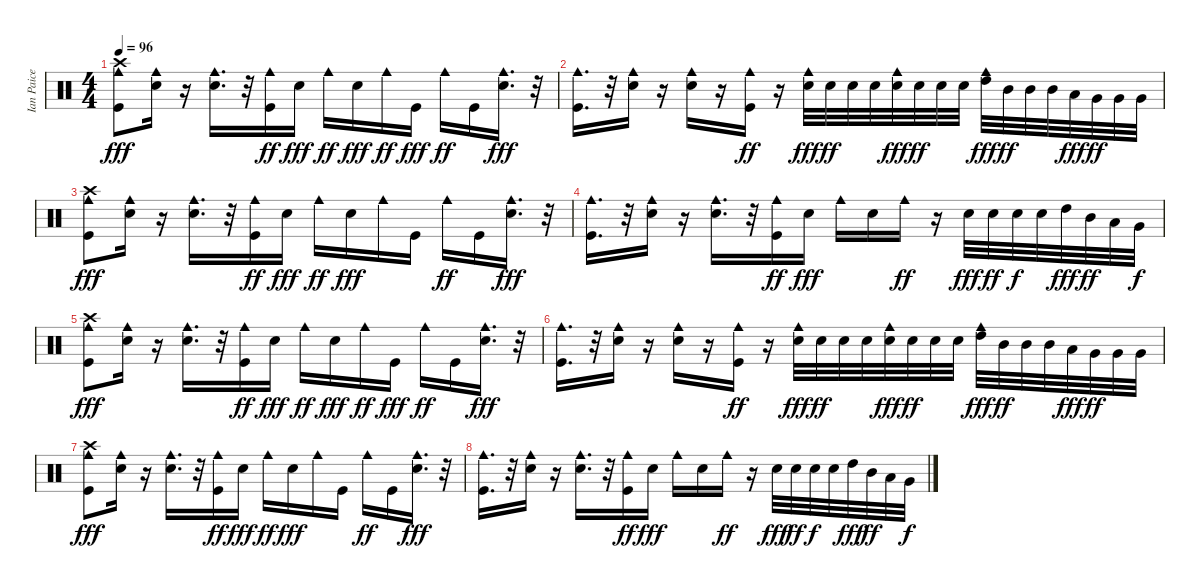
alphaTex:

\track ("Ian Paice" "Ian Paice") {instrument percussion}
\staff {score}
\articulation defaults
\ts (4 4)
\tempo 96
\clef neutral
\ks c
("Cowbell medium (hit)" "Kick (hit)" "Crash high (hit)").8{dy fff} ("Cowbell medium (hit)" "Snare (hit) 2").16 r.16 ("Cowbell medium (hit)" "Snare (hit) 2").16{d} r.32 ("Cowbell medium (hit)" "Kick (hit)").16{dy ff} "Snare (hit) 2".16{dy fff} "Cowbell medium (hit)".16{dy ff} "Snare (hit) 2".16{dy fff} "Cowbell medium (hit)".16{dy ff} "Kick (hit)".16{dy fff} "Cowbell medium (hit)".16{dy ff} "Kick (hit)".16 ("Cowbell medium (hit)" "Snare (hit) 2").16{d dy fff} r.32 |
("Cowbell medium (hit)" "Kick (hit)").16{d} r.32 ("Cowbell medium (hit)" "Snare (hit) 2").16 r.16 ("Cowbell medium (hit)" "Snare (hit) 2").16 r.16 ("Cowbell medium (hit)" "Kick (hit)").16{dy ff} r.16 ("Cowbell medium (hit)" "Snare (hit) 2").32{dy fff} "Snare (hit) 2".32{dy ff} "Snare (hit) 2".32 "Snare (hit) 2".32 ("Cowbell medium (hit)" "Snare (hit) 2").32{dy fff} "Snare (hit) 2".32{dy ff} "Snare (hit) 2".32 "Snare (hit) 2".32 ("Cowbell medium (hit)" "High Tom (hit)").32{dy fff} "Mid Tom (hit)".32{dy ff} "Mid Tom (hit)".32 "Mid Tom (hit)".32 "Low Tom (hit)".32{dy fff} "Very Low Tom (hit)".32{dy ff} "Very Low Tom (hit)".32 "Very Low Tom (hit)".32 |
("Cowbell medium (hit)" "Kick (hit)" "Crash high (hit)").8{dy fff} ("Cowbell medium (hit)" "Snare (hit) 2").16 r.16 ("Cowbell medium (hit)" "Snare (hit) 2").16{d} r.32 ("Cowbell medium (hit)" "Kick (hit)").16{dy ff} "Snare (hit) 2".16{dy fff} "Cowbell medium (hit)".16{dy ff} "Snare (hit) 2".16{dy fff} "Cowbell medium (hit)".16 "Kick (hit)".16 "Cowbell medium (hit)".16{dy ff} "Kick (hit)".16 ("Cowbell medium (hit)" "Snare (hit) 2").16{d dy fff} r.32 |
("Cowbell medium (hit)" "Kick (hit)").16{d} r.32 ("Cowbell medium (hit)" "Snare (hit) 2").16 r.16 ("Cowbell medium (hit)" "Snare (hit) 2").16{d} r.32 ("Cowbell medium (hit)" "Kick (hit)").16{dy ff} "Snare (hit) 2".16{dy fff} "Cowbell medium (hit)".16 "Snare (hit) 2".16 "Cowbell medium (hit)".16{dy ff} r.16 "Snare (hit) 2".32{dy fff} "Snare (hit) 2".32{dy ff} "Snare (hit) 2".32{dy f} "Snare (hit) 2".32 "High Tom (hit)".32{dy fff} "Mid Tom (hit)".32{dy ff} "Low Tom (hit)".32 "Very Low Tom (hit)".32{dy f} |
("Cowbell medium (hit)" "Kick (hit)" "Crash high (hit)").8{dy fff volume 1} ("Cowbell medium (hit)" "Snare (hit) 2").16 r.16 ("Cowbell medium (hit)" "Snare (hit) 2").16{d} r.32 ("Cowbell medium (hit)" "Kick (hit)").16{dy ff} "Snare (hit) 2".16{dy fff} "Cowbell medium (hit)".16{dy ff} "Snare (hit) 2".16{dy fff} "Cowbell medium (hit)".16{dy ff} "Kick (hit)".16{dy fff} "Cowbell medium (hit)".16{dy ff} "Kick (hit)".16 ("Cowbell medium (hit)" "Snare (hit) 2").16{d dy fff} r.32 |
("Cowbell medium (hit)" "Kick (hit)").16{d} r.32 ("Cowbell medium (hit)" "Snare (hit) 2").16 r.16 ("Cowbell medium (hit)" "Snare (hit) 2").16 r.16 ("Cowbell medium (hit)" "Kick (hit)").16{dy ff} r.16 ("Cowbell medium (hit)" "Snare (hit) 2").32{dy fff} "Snare (hit) 2".32{dy ff} "Snare (hit) 2".32 "Snare (hit) 2".32 ("Cowbell medium (hit)" "Snare (hit) 2").32{dy fff} "Snare (hit) 2".32{dy ff} "Snare (hit) 2".32 "Snare (hit) 2".32 ("Cowbell medium (hit)" "High Tom (hit)").32{dy fff} "Mid Tom (hit)".32{dy ff} "Mid Tom (hit)".32 "Mid Tom (hit)".32 "Low Tom (hit)".32{dy fff} "Very Low Tom (hit)".32{dy ff} "Very Low Tom (hit)".32 "Very Low Tom (hit)".32 |
("Cowbell medium (hit)" "Kick (hit)" "Crash high (hit)").8{dy fff} ("Cowbell medium (hit)" "Snare (hit) 2").16 r.16 ("Cowbell medium (hit)" "Snare (hit) 2").16{d} r.32 ("Cowbell medium (hit)" "Kick (hit)").16{dy ff} "Snare (hit) 2".16{dy fff} "Cowbell medium (hit)".16{dy ff} "Snare (hit) 2".16{dy fff} "Cowbell medium (hit)".16 "Kick (hit)".16 "Cowbell medium (hit)".16{dy ff} "Kick (hit)".16 ("Cowbell medium (hit)" "Snare (hit) 2").16{d dy fff} r.32 |
("Cowbell medium (hit)" "Kick (hit)").16{d} r.32 ("Cowbell medium (hit)" "Snare (hit) 2").16 r.16 ("Cowbell medium (hit)" "Snare (hit) 2").16{d} r.32 ("Cowbell medium (hit)" "Kick (hit)").16{dy ff} "Snare (hit) 2".16{dy fff} "Cowbell medium (hit)".16 "Snare (hit) 2".16 "Cowbell medium (hit)".16{dy ff} r.16 "Snare (hit) 2".32{dy fff} "Snare (hit) 2".32{dy ff} "Snare (hit) 2".32{dy f} "Snare (hit) 2".32 "High Tom (hit)".32{dy fff} "Mid Tom (hit)".32{dy ff} "Low Tom (hit)".32 "Very Low Tom (hit)".32{dy f}
